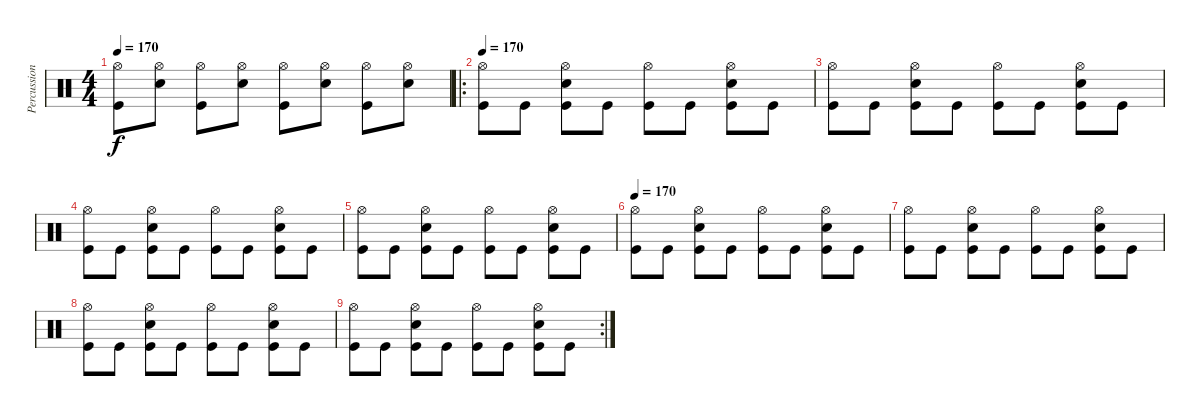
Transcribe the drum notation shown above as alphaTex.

\track ("Percussion" "Percussion") {instrument percussion}
\staff {score}
\articulation defaults
\ts (4 4)
\tempo 170
\clef neutral
\ks c
("Hi-Hat (open)" "Kick (hit)").8{dy f} ("Hi-Hat (open)" "Snare (hit) 2").8 ("Hi-Hat (open)" "Kick (hit)").8 ("Hi-Hat (open)" "Snare (hit) 2").8 ("Hi-Hat (open)" "Kick (hit)").8 ("Hi-Hat (open)" "Snare (hit) 2").8 ("Hi-Hat (open)" "Kick (hit)").8 ("Hi-Hat (open)" "Snare (hit) 2").8 |
\ro
\tempo 170
("Hi-Hat (open)" "Kick (hit)").8 "Kick (hit)".8 ("Hi-Hat (open)" "Snare (hit) 2" "Kick (hit)").8 "Kick (hit)".8 ("Hi-Hat (open)" "Kick (hit)").8 "Kick (hit)".8 ("Hi-Hat (open)" "Snare (hit) 2" "Kick (hit)").8 "Kick (hit)".8 |
("Hi-Hat (open)" "Kick (hit)").8 "Kick (hit)".8 ("Hi-Hat (open)" "Snare (hit) 2" "Kick (hit)").8 "Kick (hit)".8 ("Hi-Hat (open)" "Kick (hit)").8 "Kick (hit)".8 ("Hi-Hat (open)" "Snare (hit) 2" "Kick (hit)").8 "Kick (hit)".8 |
("Hi-Hat (open)" "Kick (hit)").8 "Kick (hit)".8 ("Hi-Hat (open)" "Snare (hit) 2" "Kick (hit)").8 "Kick (hit)".8 ("Hi-Hat (open)" "Kick (hit)").8 "Kick (hit)".8 ("Hi-Hat (open)" "Snare (hit) 2" "Kick (hit)").8 "Kick (hit)".8 |
("Hi-Hat (open)" "Kick (hit)").8 "Kick (hit)".8 ("Hi-Hat (open)" "Snare (hit) 2" "Kick (hit)").8 "Kick (hit)".8 ("Hi-Hat (open)" "Kick (hit)").8 "Kick (hit)".8 ("Hi-Hat (open)" "Snare (hit) 2" "Kick (hit)").8 "Kick (hit)".8 |
\tempo 170
("Hi-Hat (open)" "Kick (hit)").8 "Kick (hit)".8 ("Hi-Hat (open)" "Snare (hit) 2" "Kick (hit)").8 "Kick (hit)".8 ("Hi-Hat (open)" "Kick (hit)").8 "Kick (hit)".8 ("Hi-Hat (open)" "Snare (hit) 2" "Kick (hit)").8 "Kick (hit)".8 |
("Hi-Hat (open)" "Kick (hit)").8 "Kick (hit)".8 ("Hi-Hat (open)" "Snare (hit) 2" "Kick (hit)").8 "Kick (hit)".8 ("Hi-Hat (open)" "Kick (hit)").8 "Kick (hit)".8 ("Hi-Hat (open)" "Snare (hit) 2" "Kick (hit)").8 "Kick (hit)".8 |
("Hi-Hat (open)" "Kick (hit)").8 "Kick (hit)".8 ("Hi-Hat (open)" "Snare (hit) 2" "Kick (hit)").8 "Kick (hit)".8 ("Hi-Hat (open)" "Kick (hit)").8 "Kick (hit)".8 ("Hi-Hat (open)" "Snare (hit) 2" "Kick (hit)").8 "Kick (hit)".8 |
\rc 2
("Hi-Hat (open)" "Kick (hit)").8 "Kick (hit)".8 ("Hi-Hat (open)" "Snare (hit) 2" "Kick (hit)").8 "Kick (hit)".8 ("Hi-Hat (open)" "Kick (hit)").8 "Kick (hit)".8 ("Hi-Hat (open)" "Snare (hit) 2" "Kick (hit)").8 "Kick (hit)".8
